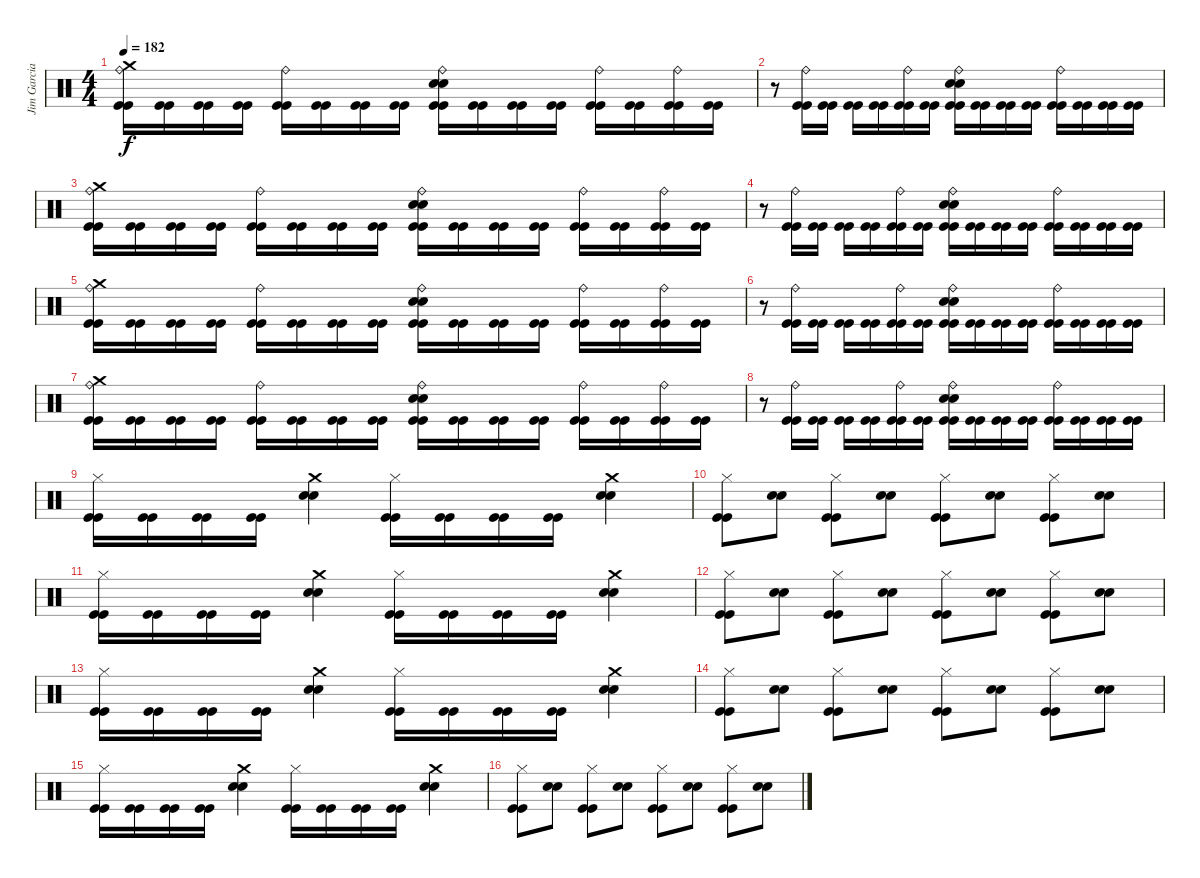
\track ("Jim Garcia" "Jim Garcia") {instrument percussion}
\staff {score}
\articulation defaults
\ts (4 4)
\tempo 182
\clef neutral
\ks c
("Crash medium (hit)" "Ride (bell)" "Kick (hit)" "Kick (hit)").16{dy f} ("Kick (hit)" "Kick (hit)").16 ("Kick (hit)" "Kick (hit)").16 ("Kick (hit)" "Kick (hit)").16 ("Ride (bell)" "Kick (hit)" "Kick (hit)").16 ("Kick (hit)" "Kick (hit)").16 ("Kick (hit)" "Kick (hit)").16 ("Kick (hit)" "Kick (hit)").16 ("Snare (hit) 2" "Snare (hit) 2" "Ride (bell)" "Kick (hit)" "Kick (hit)").16 ("Kick (hit)" "Kick (hit)").16 ("Kick (hit)" "Kick (hit)").16 ("Kick (hit)" "Kick (hit)").16 ("Ride (bell)" "Kick (hit)" "Kick (hit)").16 ("Kick (hit)" "Kick (hit)").16 ("Ride (bell)" "Kick (hit)" "Kick (hit)").16 ("Kick (hit)" "Kick (hit)").16 |
r.8 ("Ride (bell)" "Kick (hit)" "Kick (hit)").16 ("Kick (hit)" "Kick (hit)").16 ("Kick (hit)" "Kick (hit)").16 ("Kick (hit)" "Kick (hit)").16 ("Ride (bell)" "Kick (hit)" "Kick (hit)").16 ("Kick (hit)" "Kick (hit)").16 ("Snare (hit) 2" "Snare (hit) 2" "Ride (bell)" "Kick (hit)" "Kick (hit)").16 ("Kick (hit)" "Kick (hit)").16 ("Kick (hit)" "Kick (hit)").16 ("Kick (hit)" "Kick (hit)").16 ("Ride (bell)" "Kick (hit)" "Kick (hit)").16 ("Kick (hit)" "Kick (hit)").16 ("Kick (hit)" "Kick (hit)").16 ("Kick (hit)" "Kick (hit)").16 |
("Crash medium (hit)" "Ride (bell)" "Kick (hit)" "Kick (hit)").16 ("Kick (hit)" "Kick (hit)").16 ("Kick (hit)" "Kick (hit)").16 ("Kick (hit)" "Kick (hit)").16 ("Ride (bell)" "Kick (hit)" "Kick (hit)").16 ("Kick (hit)" "Kick (hit)").16 ("Kick (hit)" "Kick (hit)").16 ("Kick (hit)" "Kick (hit)").16 ("Snare (hit) 2" "Snare (hit) 2" "Ride (bell)" "Kick (hit)" "Kick (hit)").16 ("Kick (hit)" "Kick (hit)").16 ("Kick (hit)" "Kick (hit)").16 ("Kick (hit)" "Kick (hit)").16 ("Ride (bell)" "Kick (hit)" "Kick (hit)").16 ("Kick (hit)" "Kick (hit)").16 ("Ride (bell)" "Kick (hit)" "Kick (hit)").16 ("Kick (hit)" "Kick (hit)").16 |
r.8 ("Ride (bell)" "Kick (hit)" "Kick (hit)").16 ("Kick (hit)" "Kick (hit)").16 ("Kick (hit)" "Kick (hit)").16 ("Kick (hit)" "Kick (hit)").16 ("Ride (bell)" "Kick (hit)" "Kick (hit)").16 ("Kick (hit)" "Kick (hit)").16 ("Snare (hit) 2" "Snare (hit) 2" "Ride (bell)" "Kick (hit)" "Kick (hit)").16 ("Kick (hit)" "Kick (hit)").16 ("Kick (hit)" "Kick (hit)").16 ("Kick (hit)" "Kick (hit)").16 ("Ride (bell)" "Kick (hit)" "Kick (hit)").16 ("Kick (hit)" "Kick (hit)").16 ("Kick (hit)" "Kick (hit)").16 ("Kick (hit)" "Kick (hit)").16 |
("Crash medium (hit)" "Ride (bell)" "Kick (hit)" "Kick (hit)").16 ("Kick (hit)" "Kick (hit)").16 ("Kick (hit)" "Kick (hit)").16 ("Kick (hit)" "Kick (hit)").16 ("Ride (bell)" "Kick (hit)" "Kick (hit)").16 ("Kick (hit)" "Kick (hit)").16 ("Kick (hit)" "Kick (hit)").16 ("Kick (hit)" "Kick (hit)").16 ("Snare (hit) 2" "Snare (hit) 2" "Ride (bell)" "Kick (hit)" "Kick (hit)").16 ("Kick (hit)" "Kick (hit)").16 ("Kick (hit)" "Kick (hit)").16 ("Kick (hit)" "Kick (hit)").16 ("Ride (bell)" "Kick (hit)" "Kick (hit)").16 ("Kick (hit)" "Kick (hit)").16 ("Ride (bell)" "Kick (hit)" "Kick (hit)").16 ("Kick (hit)" "Kick (hit)").16 |
r.8 ("Ride (bell)" "Kick (hit)" "Kick (hit)").16 ("Kick (hit)" "Kick (hit)").16 ("Kick (hit)" "Kick (hit)").16 ("Kick (hit)" "Kick (hit)").16 ("Ride (bell)" "Kick (hit)" "Kick (hit)").16 ("Kick (hit)" "Kick (hit)").16 ("Snare (hit) 2" "Snare (hit) 2" "Ride (bell)" "Kick (hit)" "Kick (hit)").16 ("Kick (hit)" "Kick (hit)").16 ("Kick (hit)" "Kick (hit)").16 ("Kick (hit)" "Kick (hit)").16 ("Ride (bell)" "Kick (hit)" "Kick (hit)").16 ("Kick (hit)" "Kick (hit)").16 ("Kick (hit)" "Kick (hit)").16 ("Kick (hit)" "Kick (hit)").16 |
("Crash medium (hit)" "Ride (bell)" "Kick (hit)" "Kick (hit)").16 ("Kick (hit)" "Kick (hit)").16 ("Kick (hit)" "Kick (hit)").16 ("Kick (hit)" "Kick (hit)").16 ("Ride (bell)" "Kick (hit)" "Kick (hit)").16 ("Kick (hit)" "Kick (hit)").16 ("Kick (hit)" "Kick (hit)").16 ("Kick (hit)" "Kick (hit)").16 ("Snare (hit) 2" "Snare (hit) 2" "Ride (bell)" "Kick (hit)" "Kick (hit)").16 ("Kick (hit)" "Kick (hit)").16 ("Kick (hit)" "Kick (hit)").16 ("Kick (hit)" "Kick (hit)").16 ("Ride (bell)" "Kick (hit)" "Kick (hit)").16 ("Kick (hit)" "Kick (hit)").16 ("Ride (bell)" "Kick (hit)" "Kick (hit)").16 ("Kick (hit)" "Kick (hit)").16 |
r.8 ("Ride (bell)" "Kick (hit)" "Kick (hit)").16 ("Kick (hit)" "Kick (hit)").16 ("Kick (hit)" "Kick (hit)").16 ("Kick (hit)" "Kick (hit)").16 ("Ride (bell)" "Kick (hit)" "Kick (hit)").16 ("Kick (hit)" "Kick (hit)").16 ("Snare (hit) 2" "Snare (hit) 2" "Ride (bell)" "Kick (hit)" "Kick (hit)").16 ("Kick (hit)" "Kick (hit)").16 ("Kick (hit)" "Kick (hit)").16 ("Kick (hit)" "Kick (hit)").16 ("Ride (bell)" "Kick (hit)" "Kick (hit)").16 ("Kick (hit)" "Kick (hit)").16 ("Kick (hit)" "Kick (hit)").16 ("Kick (hit)" "Kick (hit)").16 |
("Hi-Hat (closed)" "Kick (hit)" "Kick (hit)").16 ("Kick (hit)" "Kick (hit)").16 ("Kick (hit)" "Kick (hit)").16 ("Kick (hit)" "Kick (hit)").16 ("Crash medium (hit)" "Snare (hit) 2" "Snare (hit) 2").4 ("Hi-Hat (closed)" "Kick (hit)" "Kick (hit)").16 ("Kick (hit)" "Kick (hit)").16 ("Kick (hit)" "Kick (hit)").16 ("Kick (hit)" "Kick (hit)").16 ("Crash medium (hit)" "Snare (hit) 2" "Snare (hit) 2").4 |
("Hi-Hat (closed)" "Kick (hit)" "Kick (hit)").8 ("Snare (hit) 2" "Snare (hit) 2").8 ("Hi-Hat (closed)" "Kick (hit)" "Kick (hit)").8 ("Snare (hit) 2" "Snare (hit) 2").8 ("Hi-Hat (closed)" "Kick (hit)" "Kick (hit)").8 ("Snare (hit) 2" "Snare (hit) 2").8 ("Hi-Hat (closed)" "Kick (hit)" "Kick (hit)").8 ("Snare (hit) 2" "Snare (hit) 2").8 |
("Hi-Hat (closed)" "Kick (hit)" "Kick (hit)").16 ("Kick (hit)" "Kick (hit)").16 ("Kick (hit)" "Kick (hit)").16 ("Kick (hit)" "Kick (hit)").16 ("Crash medium (hit)" "Snare (hit) 2" "Snare (hit) 2").4 ("Hi-Hat (closed)" "Kick (hit)" "Kick (hit)").16 ("Kick (hit)" "Kick (hit)").16 ("Kick (hit)" "Kick (hit)").16 ("Kick (hit)" "Kick (hit)").16 ("Crash medium (hit)" "Snare (hit) 2" "Snare (hit) 2").4 |
("Hi-Hat (closed)" "Kick (hit)" "Kick (hit)").8 ("Snare (hit) 2" "Snare (hit) 2").8 ("Hi-Hat (closed)" "Kick (hit)" "Kick (hit)").8 ("Snare (hit) 2" "Snare (hit) 2").8 ("Hi-Hat (closed)" "Kick (hit)" "Kick (hit)").8 ("Snare (hit) 2" "Snare (hit) 2").8 ("Hi-Hat (closed)" "Kick (hit)" "Kick (hit)").8 ("Snare (hit) 2" "Snare (hit) 2").8 |
("Hi-Hat (closed)" "Kick (hit)" "Kick (hit)").16 ("Kick (hit)" "Kick (hit)").16 ("Kick (hit)" "Kick (hit)").16 ("Kick (hit)" "Kick (hit)").16 ("Crash medium (hit)" "Snare (hit) 2" "Snare (hit) 2").4 ("Hi-Hat (closed)" "Kick (hit)" "Kick (hit)").16 ("Kick (hit)" "Kick (hit)").16 ("Kick (hit)" "Kick (hit)").16 ("Kick (hit)" "Kick (hit)").16 ("Crash medium (hit)" "Snare (hit) 2" "Snare (hit) 2").4 |
("Hi-Hat (closed)" "Kick (hit)" "Kick (hit)").8 ("Snare (hit) 2" "Snare (hit) 2").8 ("Hi-Hat (closed)" "Kick (hit)" "Kick (hit)").8 ("Snare (hit) 2" "Snare (hit) 2").8 ("Hi-Hat (closed)" "Kick (hit)" "Kick (hit)").8 ("Snare (hit) 2" "Snare (hit) 2").8 ("Hi-Hat (closed)" "Kick (hit)" "Kick (hit)").8 ("Snare (hit) 2" "Snare (hit) 2").8 |
("Hi-Hat (closed)" "Kick (hit)" "Kick (hit)").16 ("Kick (hit)" "Kick (hit)").16 ("Kick (hit)" "Kick (hit)").16 ("Kick (hit)" "Kick (hit)").16 ("Crash medium (hit)" "Snare (hit) 2" "Snare (hit) 2").4 ("Hi-Hat (closed)" "Kick (hit)" "Kick (hit)").16 ("Kick (hit)" "Kick (hit)").16 ("Kick (hit)" "Kick (hit)").16 ("Kick (hit)" "Kick (hit)").16 ("Crash medium (hit)" "Snare (hit) 2" "Snare (hit) 2").4 |
("Hi-Hat (closed)" "Kick (hit)" "Kick (hit)").8 ("Snare (hit) 2" "Snare (hit) 2").8 ("Hi-Hat (closed)" "Kick (hit)" "Kick (hit)").8 ("Snare (hit) 2" "Snare (hit) 2").8 ("Hi-Hat (closed)" "Kick (hit)" "Kick (hit)").8 ("Snare (hit) 2" "Snare (hit) 2").8 ("Hi-Hat (closed)" "Kick (hit)" "Kick (hit)").8 ("Snare (hit) 2" "Snare (hit) 2").8
